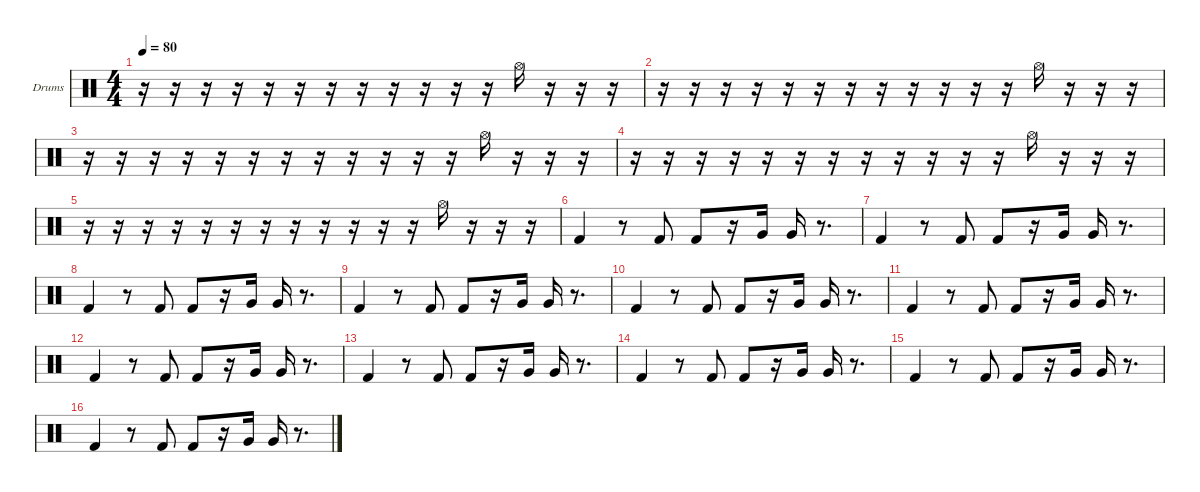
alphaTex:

\hideDynamics
\bracketExtendMode nobrackets
\firstSystemTrackNameOrientation horizontal
\otherSystemsTrackNameOrientation horizontal
\track ("Drumkit" "Drums") {instrument percussion}
\staff {score}
\articulation defaults
\ts (4 4)
\tempo 80
\clef neutral
\ks c
r.16{dy f} r.16 r.16 r.16 r.16 r.16 r.16 r.16 r.16 r.16 r.16 r.16 "Hi-Hat (open)".16 r.16 r.16 r.16 |
r.16 r.16 r.16 r.16 r.16 r.16 r.16 r.16 r.16 r.16 r.16 r.16 "Hi-Hat (open)".16 r.16 r.16 r.16 |
r.16 r.16 r.16 r.16 r.16 r.16 r.16 r.16 r.16 r.16 r.16 r.16 "Hi-Hat (open)".16 r.16 r.16 r.16 |
r.16 r.16 r.16 r.16 r.16 r.16 r.16 r.16 r.16 r.16 r.16 r.16 "Hi-Hat (open)".16 r.16 r.16 r.16 |
r.16 r.16 r.16 r.16 r.16 r.16 r.16 r.16 r.16 r.16 r.16 r.16 "Hi-Hat (open)".16 r.16 r.16 r.16 |
"Kick (hit) 2".4 r.8 "Kick (hit) 2".8 "Kick (hit) 2".8 r.16 "Very Low Tom (hit)".16 "Very Low Tom (hit)".16 r.8{d} |
"Kick (hit) 2".4 r.8 "Kick (hit) 2".8 "Kick (hit) 2".8 r.16 "Very Low Tom (hit)".16 "Very Low Tom (hit)".16 r.8{d} |
"Kick (hit) 2".4 r.8 "Kick (hit) 2".8 "Kick (hit) 2".8 r.16 "Very Low Tom (hit)".16 "Very Low Tom (hit)".16 r.8{d} |
"Kick (hit) 2".4 r.8 "Kick (hit) 2".8 "Kick (hit) 2".8 r.16 "Very Low Tom (hit)".16 "Very Low Tom (hit)".16 r.8{d} |
"Kick (hit) 2".4 r.8 "Kick (hit) 2".8 "Kick (hit) 2".8 r.16 "Very Low Tom (hit)".16 "Very Low Tom (hit)".16 r.8{d} |
"Kick (hit) 2".4 r.8 "Kick (hit) 2".8 "Kick (hit) 2".8 r.16 "Very Low Tom (hit)".16 "Very Low Tom (hit)".16 r.8{d} |
"Kick (hit) 2".4 r.8 "Kick (hit) 2".8 "Kick (hit) 2".8 r.16 "Very Low Tom (hit)".16 "Very Low Tom (hit)".16 r.8{d} |
"Kick (hit) 2".4 r.8 "Kick (hit) 2".8 "Kick (hit) 2".8 r.16 "Very Low Tom (hit)".16 "Very Low Tom (hit)".16 r.8{d} |
"Kick (hit) 2".4 r.8 "Kick (hit) 2".8 "Kick (hit) 2".8 r.16 "Very Low Tom (hit)".16 "Very Low Tom (hit)".16 r.8{d} |
"Kick (hit) 2".4 r.8 "Kick (hit) 2".8 "Kick (hit) 2".8 r.16 "Very Low Tom (hit)".16 "Very Low Tom (hit)".16 r.8{d} |
"Kick (hit) 2".4 r.8 "Kick (hit) 2".8 "Kick (hit) 2".8 r.16 "Very Low Tom (hit)".16 "Very Low Tom (hit)".16 r.8{d}
